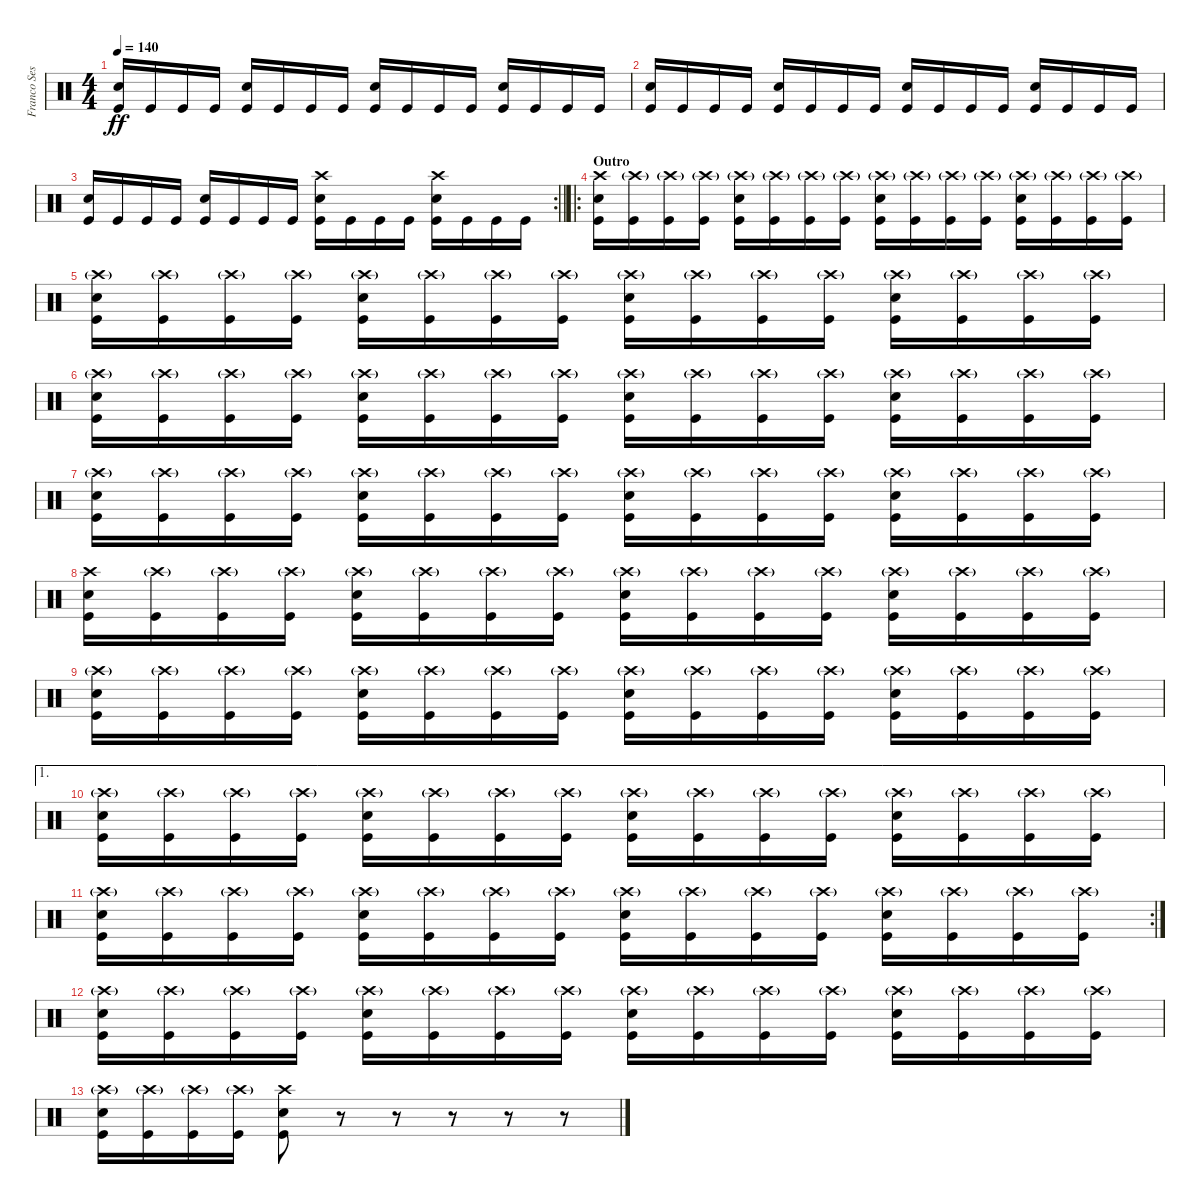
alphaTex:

\track ("Franco Sesa" "Franco Ses") {instrument percussion}
\staff {score}
\articulation defaults
\ts (4 4)
\tempo 140
\clef neutral
\ks c
("Electric Snare (hit)" "Kick (hit)").16{dy ff} "Kick (hit)".16 "Kick (hit)".16 "Kick (hit)".16 ("Electric Snare (hit)" "Kick (hit)").16 "Kick (hit)".16 "Kick (hit)".16 "Kick (hit)".16 ("Electric Snare (hit)" "Kick (hit)").16 "Kick (hit)".16 "Kick (hit)".16 "Kick (hit)".16 ("Electric Snare (hit)" "Kick (hit)").16 "Kick (hit)".16 "Kick (hit)".16 "Kick (hit)".16 |
("Electric Snare (hit)" "Kick (hit)").16 "Kick (hit)".16 "Kick (hit)".16 "Kick (hit)".16 ("Electric Snare (hit)" "Kick (hit)").16 "Kick (hit)".16 "Kick (hit)".16 "Kick (hit)".16 ("Electric Snare (hit)" "Kick (hit)").16 "Kick (hit)".16 "Kick (hit)".16 "Kick (hit)".16 ("Electric Snare (hit)" "Kick (hit)").16 "Kick (hit)".16 "Kick (hit)".16 "Kick (hit)".16 |
\rc 2
\barLineRight lightlight
("Electric Snare (hit)" "Kick (hit)").16 "Kick (hit)".16 "Kick (hit)".16 "Kick (hit)".16 ("Electric Snare (hit)" "Kick (hit)").16 "Kick (hit)".16 "Kick (hit)".16 "Kick (hit)".16 ("Crash high (hit)" "Electric Snare (hit)" "Kick (hit)").16 "Kick (hit)".16 "Kick (hit)".16 "Kick (hit)".16 ("Crash high (hit)" "Electric Snare (hit)" "Kick (hit)").16 "Kick (hit)".16 "Kick (hit)".16 "Kick (hit)".16 |
\ro
\section ("" "Outro")
("Crash high (hit)" "Electric Snare (hit)" "Kick (hit)").16 ("Crash high (hit)"{g} "Kick (hit)").16 ("Crash high (hit)"{g} "Kick (hit)").16 ("Crash high (hit)"{g} "Kick (hit)").16 ("Crash high (hit)"{g} "Electric Snare (hit)" "Kick (hit)").16 ("Crash high (hit)"{g} "Kick (hit)").16 ("Crash high (hit)"{g} "Kick (hit)").16 ("Crash high (hit)"{g} "Kick (hit)").16 ("Crash high (hit)"{g} "Electric Snare (hit)" "Kick (hit)").16 ("Crash high (hit)"{g} "Kick (hit)").16 ("Crash high (hit)"{g} "Kick (hit)").16 ("Crash high (hit)"{g} "Kick (hit)").16 ("Crash high (hit)"{g} "Electric Snare (hit)" "Kick (hit)").16 ("Crash high (hit)"{g} "Kick (hit)").16 ("Crash high (hit)"{g} "Kick (hit)").16 ("Crash high (hit)"{g} "Kick (hit)").16 |
("Crash high (hit)"{g} "Electric Snare (hit)" "Kick (hit)").16 ("Crash high (hit)"{g} "Kick (hit)").16 ("Crash high (hit)"{g} "Kick (hit)").16 ("Crash high (hit)"{g} "Kick (hit)").16 ("Crash high (hit)"{g} "Electric Snare (hit)" "Kick (hit)").16 ("Crash high (hit)"{g} "Kick (hit)").16 ("Crash high (hit)"{g} "Kick (hit)").16 ("Crash high (hit)"{g} "Kick (hit)").16 ("Crash high (hit)"{g} "Electric Snare (hit)" "Kick (hit)").16 ("Crash high (hit)"{g} "Kick (hit)").16 ("Crash high (hit)"{g} "Kick (hit)").16 ("Crash high (hit)"{g} "Kick (hit)").16 ("Crash high (hit)"{g} "Electric Snare (hit)" "Kick (hit)").16 ("Crash high (hit)"{g} "Kick (hit)").16 ("Crash high (hit)"{g} "Kick (hit)").16 ("Crash high (hit)"{g} "Kick (hit)").16 |
("Crash high (hit)"{g} "Electric Snare (hit)" "Kick (hit)").16 ("Crash high (hit)"{g} "Kick (hit)").16 ("Crash high (hit)"{g} "Kick (hit)").16 ("Crash high (hit)"{g} "Kick (hit)").16 ("Crash high (hit)"{g} "Electric Snare (hit)" "Kick (hit)").16 ("Crash high (hit)"{g} "Kick (hit)").16 ("Crash high (hit)"{g} "Kick (hit)").16 ("Crash high (hit)"{g} "Kick (hit)").16 ("Crash high (hit)"{g} "Electric Snare (hit)" "Kick (hit)").16 ("Crash high (hit)"{g} "Kick (hit)").16 ("Crash high (hit)"{g} "Kick (hit)").16 ("Crash high (hit)"{g} "Kick (hit)").16 ("Crash high (hit)"{g} "Electric Snare (hit)" "Kick (hit)").16 ("Crash high (hit)"{g} "Kick (hit)").16 ("Crash high (hit)"{g} "Kick (hit)").16 ("Crash high (hit)"{g} "Kick (hit)").16 |
("Crash high (hit)"{g} "Electric Snare (hit)" "Kick (hit)").16 ("Crash high (hit)"{g} "Kick (hit)").16 ("Crash high (hit)"{g} "Kick (hit)").16 ("Crash high (hit)"{g} "Kick (hit)").16 ("Crash high (hit)"{g} "Electric Snare (hit)" "Kick (hit)").16 ("Crash high (hit)"{g} "Kick (hit)").16 ("Crash high (hit)"{g} "Kick (hit)").16 ("Crash high (hit)"{g} "Kick (hit)").16 ("Crash high (hit)"{g} "Electric Snare (hit)" "Kick (hit)").16 ("Crash high (hit)"{g} "Kick (hit)").16 ("Crash high (hit)"{g} "Kick (hit)").16 ("Crash high (hit)"{g} "Kick (hit)").16 ("Crash high (hit)"{g} "Electric Snare (hit)" "Kick (hit)").16 ("Crash high (hit)"{g} "Kick (hit)").16 ("Crash high (hit)"{g} "Kick (hit)").16 ("Crash high (hit)"{g} "Kick (hit)").16 |
("Crash high (hit)" "Electric Snare (hit)" "Kick (hit)").16 ("Crash high (hit)"{g} "Kick (hit)").16 ("Crash high (hit)"{g} "Kick (hit)").16 ("Crash high (hit)"{g} "Kick (hit)").16 ("Crash high (hit)"{g} "Electric Snare (hit)" "Kick (hit)").16 ("Crash high (hit)"{g} "Kick (hit)").16 ("Crash high (hit)"{g} "Kick (hit)").16 ("Crash high (hit)"{g} "Kick (hit)").16 ("Crash high (hit)"{g} "Electric Snare (hit)" "Kick (hit)").16 ("Crash high (hit)"{g} "Kick (hit)").16 ("Crash high (hit)"{g} "Kick (hit)").16 ("Crash high (hit)"{g} "Kick (hit)").16 ("Crash high (hit)"{g} "Electric Snare (hit)" "Kick (hit)").16 ("Crash high (hit)"{g} "Kick (hit)").16 ("Crash high (hit)"{g} "Kick (hit)").16 ("Crash high (hit)"{g} "Kick (hit)").16 |
("Crash high (hit)"{g} "Electric Snare (hit)" "Kick (hit)").16 ("Crash high (hit)"{g} "Kick (hit)").16 ("Crash high (hit)"{g} "Kick (hit)").16 ("Crash high (hit)"{g} "Kick (hit)").16 ("Crash high (hit)"{g} "Electric Snare (hit)" "Kick (hit)").16 ("Crash high (hit)"{g} "Kick (hit)").16 ("Crash high (hit)"{g} "Kick (hit)").16 ("Crash high (hit)"{g} "Kick (hit)").16 ("Crash high (hit)"{g} "Electric Snare (hit)" "Kick (hit)").16 ("Crash high (hit)"{g} "Kick (hit)").16 ("Crash high (hit)"{g} "Kick (hit)").16 ("Crash high (hit)"{g} "Kick (hit)").16 ("Crash high (hit)"{g} "Electric Snare (hit)" "Kick (hit)").16 ("Crash high (hit)"{g} "Kick (hit)").16 ("Crash high (hit)"{g} "Kick (hit)").16 ("Crash high (hit)"{g} "Kick (hit)").16 |
\ae 1
("Crash high (hit)"{g} "Electric Snare (hit)" "Kick (hit)").16 ("Crash high (hit)"{g} "Kick (hit)").16 ("Crash high (hit)"{g} "Kick (hit)").16 ("Crash high (hit)"{g} "Kick (hit)").16 ("Crash high (hit)"{g} "Electric Snare (hit)" "Kick (hit)").16 ("Crash high (hit)"{g} "Kick (hit)").16 ("Crash high (hit)"{g} "Kick (hit)").16 ("Crash high (hit)"{g} "Kick (hit)").16 ("Crash high (hit)"{g} "Electric Snare (hit)" "Kick (hit)").16 ("Crash high (hit)"{g} "Kick (hit)").16 ("Crash high (hit)"{g} "Kick (hit)").16 ("Crash high (hit)"{g} "Kick (hit)").16 ("Crash high (hit)"{g} "Electric Snare (hit)" "Kick (hit)").16 ("Crash high (hit)"{g} "Kick (hit)").16 ("Crash high (hit)"{g} "Kick (hit)").16 ("Crash high (hit)"{g} "Kick (hit)").16 |
\rc 2
("Crash high (hit)"{g} "Electric Snare (hit)" "Kick (hit)").16 ("Crash high (hit)"{g} "Kick (hit)").16 ("Crash high (hit)"{g} "Kick (hit)").16 ("Crash high (hit)"{g} "Kick (hit)").16 ("Crash high (hit)"{g} "Electric Snare (hit)" "Kick (hit)").16 ("Crash high (hit)"{g} "Kick (hit)").16 ("Crash high (hit)"{g} "Kick (hit)").16 ("Crash high (hit)"{g} "Kick (hit)").16 ("Crash high (hit)"{g} "Electric Snare (hit)" "Kick (hit)").16 ("Crash high (hit)"{g} "Kick (hit)").16 ("Crash high (hit)"{g} "Kick (hit)").16 ("Crash high (hit)"{g} "Kick (hit)").16 ("Crash high (hit)"{g} "Electric Snare (hit)" "Kick (hit)").16 ("Crash high (hit)"{g} "Kick (hit)").16 ("Crash high (hit)"{g} "Kick (hit)").16 ("Crash high (hit)"{g} "Kick (hit)").16 |
("Crash high (hit)"{g} "Electric Snare (hit)" "Kick (hit)").16 ("Crash high (hit)"{g} "Kick (hit)").16 ("Crash high (hit)"{g} "Kick (hit)").16 ("Crash high (hit)"{g} "Kick (hit)").16 ("Crash high (hit)"{g} "Electric Snare (hit)" "Kick (hit)").16 ("Crash high (hit)"{g} "Kick (hit)").16 ("Crash high (hit)"{g} "Kick (hit)").16 ("Crash high (hit)"{g} "Kick (hit)").16 ("Crash high (hit)"{g} "Electric Snare (hit)" "Kick (hit)").16 ("Crash high (hit)"{g} "Kick (hit)").16 ("Crash high (hit)"{g} "Kick (hit)").16 ("Crash high (hit)"{g} "Kick (hit)").16 ("Crash high (hit)"{g} "Electric Snare (hit)" "Kick (hit)").16 ("Crash high (hit)"{g} "Kick (hit)").16 ("Crash high (hit)"{g} "Kick (hit)").16 ("Crash high (hit)"{g} "Kick (hit)").16 |
("Crash high (hit)"{g} "Electric Snare (hit)" "Kick (hit)").16 ("Crash high (hit)"{g} "Kick (hit)").16 ("Crash high (hit)"{g} "Kick (hit)").16 ("Crash high (hit)"{g} "Kick (hit)").16 ("Crash high (hit)" "Electric Snare (hit)" "Kick (hit)").8 r.8 r.8 r.8 r.8 r.8
